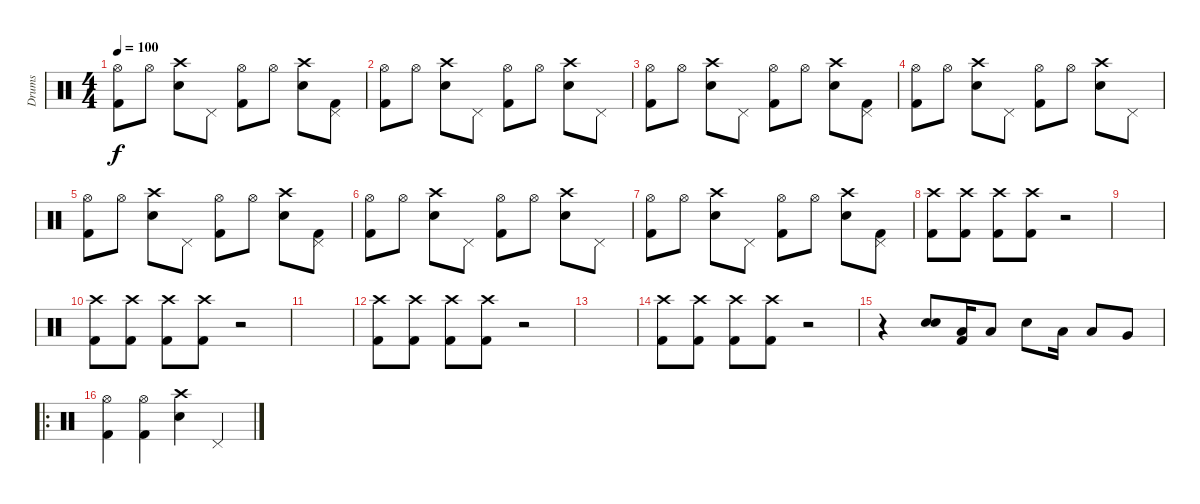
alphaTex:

\track ("Drums" "Drums") {instrument percussion}
\staff {score}
\articulation defaults
\ts (4 4)
\tempo 100
\clef neutral
\ks c
("Hi-Hat (open)" "Kick (hit) 2").8{dy f} "Hi-Hat (open)".8 ("Crash high (hit)" "Electric Snare (hit)").8 "Pedal Hi-Hat (hit)".8 ("Hi-Hat (open)" "Kick (hit) 2").8 "Hi-Hat (open)".8 ("Crash high (hit)" "Electric Snare (hit)").8 ("Pedal Hi-Hat (hit)" "Kick (hit) 2").8 |
("Hi-Hat (open)" "Kick (hit) 2").8 "Hi-Hat (open)".8 ("Crash high (hit)" "Electric Snare (hit)").8 "Pedal Hi-Hat (hit)".8 ("Hi-Hat (open)" "Kick (hit) 2").8 "Hi-Hat (open)".8 ("Crash high (hit)" "Electric Snare (hit)").8 "Pedal Hi-Hat (hit)".8 |
("Hi-Hat (open)" "Kick (hit) 2").8 "Hi-Hat (open)".8 ("Crash high (hit)" "Electric Snare (hit)").8 "Pedal Hi-Hat (hit)".8 ("Hi-Hat (open)" "Kick (hit) 2").8 "Hi-Hat (open)".8 ("Crash high (hit)" "Electric Snare (hit)").8 ("Pedal Hi-Hat (hit)" "Kick (hit) 2").8 |
("Hi-Hat (open)" "Kick (hit) 2").8 "Hi-Hat (open)".8 ("Crash high (hit)" "Electric Snare (hit)").8 "Pedal Hi-Hat (hit)".8 ("Hi-Hat (open)" "Kick (hit) 2").8 "Hi-Hat (open)".8 ("Crash high (hit)" "Electric Snare (hit)").8 "Pedal Hi-Hat (hit)".8 |
("Hi-Hat (open)" "Kick (hit) 2").8 "Hi-Hat (open)".8 ("Crash high (hit)" "Electric Snare (hit)").8 "Pedal Hi-Hat (hit)".8 ("Hi-Hat (open)" "Kick (hit) 2").8 "Hi-Hat (open)".8 ("Crash high (hit)" "Electric Snare (hit)").8 ("Pedal Hi-Hat (hit)" "Kick (hit) 2").8 |
("Hi-Hat (open)" "Kick (hit) 2").8 "Hi-Hat (open)".8 ("Crash high (hit)" "Electric Snare (hit)").8 "Pedal Hi-Hat (hit)".8 ("Hi-Hat (open)" "Kick (hit) 2").8 "Hi-Hat (open)".8 ("Crash high (hit)" "Electric Snare (hit)").8 "Pedal Hi-Hat (hit)".8 |
("Hi-Hat (open)" "Kick (hit) 2").8 "Hi-Hat (open)".8 ("Crash high (hit)" "Electric Snare (hit)").8 "Pedal Hi-Hat (hit)".8 ("Hi-Hat (open)" "Kick (hit) 2").8 "Hi-Hat (open)".8 ("Crash high (hit)" "Electric Snare (hit)").8 ("Pedal Hi-Hat (hit)" "Kick (hit) 2").8 |
("Crash high (hit)" "Kick (hit) 2").8 ("Crash high (hit)" "Kick (hit) 2").8 ("Crash high (hit)" "Kick (hit) 2").8 ("Crash high (hit)" "Kick (hit) 2").8 r.2 |
|
("Crash high (hit)" "Kick (hit) 2").8 ("Crash high (hit)" "Kick (hit) 2").8 ("Crash high (hit)" "Kick (hit) 2").8 ("Crash high (hit)" "Kick (hit) 2").8 r.2 |
|
("Crash high (hit)" "Kick (hit) 2").8 ("Crash high (hit)" "Kick (hit) 2").8 ("Crash high (hit)" "Kick (hit) 2").8 ("Crash high (hit)" "Kick (hit) 2").8 r.2 |
|
("Crash high (hit)" "Kick (hit) 2").8 ("Crash high (hit)" "Kick (hit) 2").8 ("Crash high (hit)" "Kick (hit) 2").8 ("Crash high (hit)" "Kick (hit) 2").8 r.2 |
r.4 ("Electric Snare (hit)" "Electric Snare (hit)").8{bd 240} ("Low Tom (hit)" "Kick (hit) 2").16 "Low Tom (hit)".8 "Electric Snare (hit)".8 "Low Tom (hit)".16 "Low Tom (hit)".8 "Very Low Tom (hit)".8 |
\ro
("Hi-Hat (open)" "Kick (hit) 2").4 ("Hi-Hat (open)" "Kick (hit) 2").4 ("Crash high (hit)" "Electric Snare (hit)").4 "Pedal Hi-Hat (hit)".4
